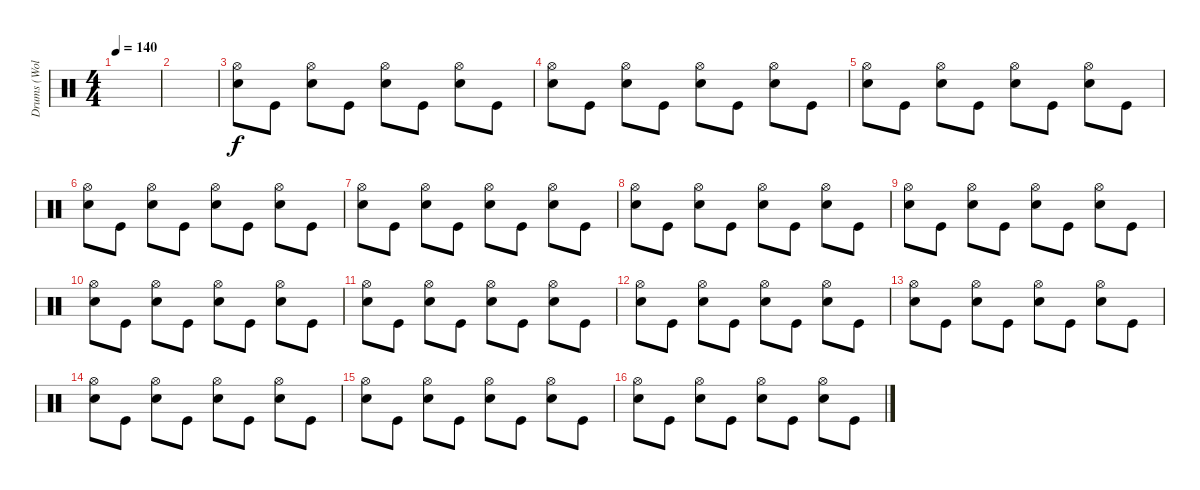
\track ("Drums (Wolf Simons)" "Drums (Wol") {instrument percussion}
\staff {score}
\articulation defaults
\ts (4 4)
\tempo 140
\clef neutral
\ks c
|
|
("Hi-Hat (open)" "Electric Snare (hit)").8 "Kick (hit)".8 ("Hi-Hat (open)" "Electric Snare (hit)").8 "Kick (hit)".8 ("Hi-Hat (open)" "Electric Snare (hit)").8 "Kick (hit)".8 ("Hi-Hat (open)" "Electric Snare (hit)").8 "Kick (hit)".8 |
("Hi-Hat (open)" "Electric Snare (hit)").8 "Kick (hit)".8 ("Hi-Hat (open)" "Electric Snare (hit)").8 "Kick (hit)".8 ("Hi-Hat (open)" "Electric Snare (hit)").8 "Kick (hit)".8 ("Hi-Hat (open)" "Electric Snare (hit)").8 "Kick (hit)".8 |
("Hi-Hat (open)" "Electric Snare (hit)").8 "Kick (hit)".8 ("Hi-Hat (open)" "Electric Snare (hit)").8 "Kick (hit)".8 ("Hi-Hat (open)" "Electric Snare (hit)").8 "Kick (hit)".8 ("Hi-Hat (open)" "Electric Snare (hit)").8 "Kick (hit)".8 |
("Hi-Hat (open)" "Electric Snare (hit)").8 "Kick (hit)".8 ("Hi-Hat (open)" "Electric Snare (hit)").8 "Kick (hit)".8 ("Hi-Hat (open)" "Electric Snare (hit)").8 "Kick (hit)".8 ("Hi-Hat (open)" "Electric Snare (hit)").8 "Kick (hit)".8 |
("Hi-Hat (open)" "Electric Snare (hit)").8 "Kick (hit)".8 ("Hi-Hat (open)" "Electric Snare (hit)").8 "Kick (hit)".8 ("Hi-Hat (open)" "Electric Snare (hit)").8 "Kick (hit)".8 ("Hi-Hat (open)" "Electric Snare (hit)").8 "Kick (hit)".8 |
("Hi-Hat (open)" "Electric Snare (hit)").8 "Kick (hit)".8 ("Hi-Hat (open)" "Electric Snare (hit)").8 "Kick (hit)".8 ("Hi-Hat (open)" "Electric Snare (hit)").8 "Kick (hit)".8 ("Hi-Hat (open)" "Electric Snare (hit)").8 "Kick (hit)".8 |
("Hi-Hat (open)" "Electric Snare (hit)").8 "Kick (hit)".8 ("Hi-Hat (open)" "Electric Snare (hit)").8 "Kick (hit)".8 ("Hi-Hat (open)" "Electric Snare (hit)").8 "Kick (hit)".8 ("Hi-Hat (open)" "Electric Snare (hit)").8 "Kick (hit)".8 |
("Hi-Hat (open)" "Electric Snare (hit)").8 "Kick (hit)".8 ("Hi-Hat (open)" "Electric Snare (hit)").8 "Kick (hit)".8 ("Hi-Hat (open)" "Electric Snare (hit)").8 "Kick (hit)".8 ("Hi-Hat (open)" "Electric Snare (hit)").8 "Kick (hit)".8 |
("Hi-Hat (open)" "Electric Snare (hit)").8 "Kick (hit)".8 ("Hi-Hat (open)" "Electric Snare (hit)").8 "Kick (hit)".8 ("Hi-Hat (open)" "Electric Snare (hit)").8 "Kick (hit)".8 ("Hi-Hat (open)" "Electric Snare (hit)").8 "Kick (hit)".8 |
("Hi-Hat (open)" "Electric Snare (hit)").8 "Kick (hit)".8 ("Hi-Hat (open)" "Electric Snare (hit)").8 "Kick (hit)".8 ("Hi-Hat (open)" "Electric Snare (hit)").8 "Kick (hit)".8 ("Hi-Hat (open)" "Electric Snare (hit)").8 "Kick (hit)".8 |
("Hi-Hat (open)" "Electric Snare (hit)").8 "Kick (hit)".8 ("Hi-Hat (open)" "Electric Snare (hit)").8 "Kick (hit)".8 ("Hi-Hat (open)" "Electric Snare (hit)").8 "Kick (hit)".8 ("Hi-Hat (open)" "Electric Snare (hit)").8 "Kick (hit)".8 |
("Hi-Hat (open)" "Electric Snare (hit)").8 "Kick (hit)".8 ("Hi-Hat (open)" "Electric Snare (hit)").8 "Kick (hit)".8 ("Hi-Hat (open)" "Electric Snare (hit)").8 "Kick (hit)".8 ("Hi-Hat (open)" "Electric Snare (hit)").8 "Kick (hit)".8 |
("Hi-Hat (open)" "Electric Snare (hit)").8 "Kick (hit)".8 ("Hi-Hat (open)" "Electric Snare (hit)").8 "Kick (hit)".8 ("Hi-Hat (open)" "Electric Snare (hit)").8 "Kick (hit)".8 ("Hi-Hat (open)" "Electric Snare (hit)").8 "Kick (hit)".8 |
("Hi-Hat (open)" "Electric Snare (hit)").8 "Kick (hit)".8 ("Hi-Hat (open)" "Electric Snare (hit)").8 "Kick (hit)".8 ("Hi-Hat (open)" "Electric Snare (hit)").8 "Kick (hit)".8 ("Hi-Hat (open)" "Electric Snare (hit)").8 "Kick (hit)".8
